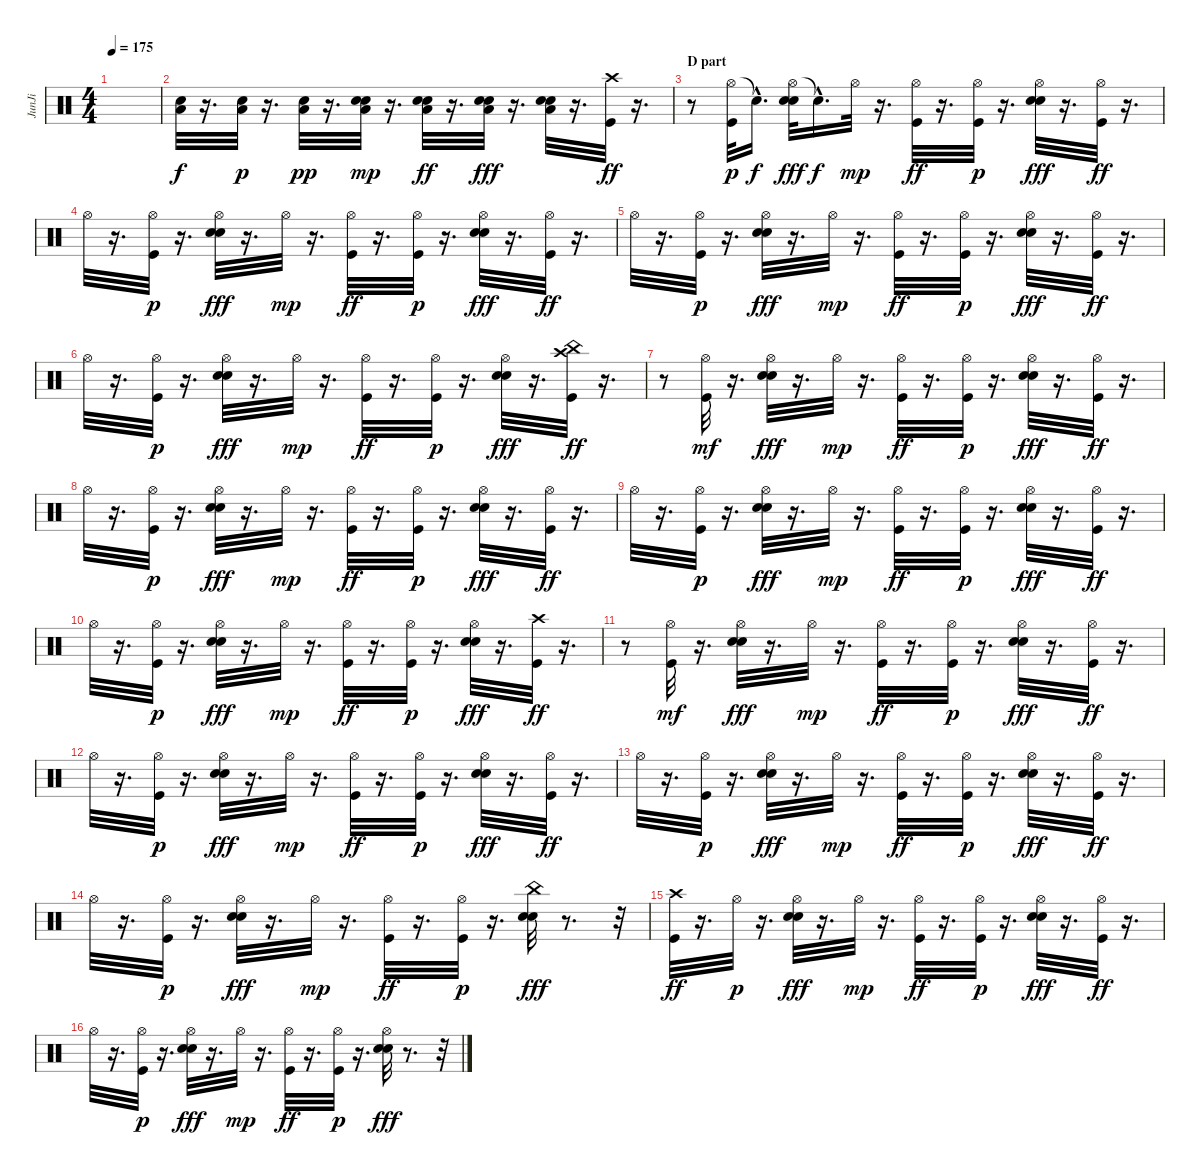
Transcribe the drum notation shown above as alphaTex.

\track ("JunJi" "JunJi") {instrument percussion}
\staff {score}
\articulation defaults
\ts (4 4)
\tempo 175
\clef neutral
\ks c
|
("Low Floor Tom (hit)" "Snare (hit) 2").32 r.16{d} ("Low Floor Tom (hit)" "Snare (hit) 2").32{dy p} r.16{d} ("Low Floor Tom (hit)" "Snare (hit) 2").32{dy pp} r.16{d} ("Electric Snare (hit)" "Low Floor Tom (hit)" "Snare (hit) 2").32{dy mp} r.16{d} ("Electric Snare (hit)" "Low Floor Tom (hit)" "Snare (hit) 2").32{dy ff} r.16{d} ("Electric Snare (hit)" "Low Floor Tom (hit)" "Snare (hit) 2").32{dy fff} r.16{d} ("Electric Snare (hit)" "Low Floor Tom (hit)" "Snare (hit) 2").32 r.16{d} ("Crash high (hit)" "Kick (hit)").32{dy ff} r.16{d} |
\section ("" "D part")
r.8 ("Hi-Hat (open)" "Kick (hit)").32{dy p} "Snare (hit)"{hac t}.16{d dy f} ("Hi-Hat (open)" "Electric Snare (hit)" "Snare (hit) 2").32{dy fff} "Snare (hit)"{hac t}.16{d dy f} "Hi-Hat (open)".32{dy mp} r.16{d} ("Hi-Hat (open)" "Kick (hit)").32{dy ff} r.16{d} ("Hi-Hat (open)" "Kick (hit)").32{dy p} r.16{d} ("Hi-Hat (open)" "Electric Snare (hit)" "Snare (hit) 2").32{dy fff} r.16{d} ("Hi-Hat (open)" "Kick (hit)").32{dy ff} r.16{d} |
"Hi-Hat (open)".32 r.16{d} ("Hi-Hat (open)" "Kick (hit)").32{dy p} r.16{d} ("Hi-Hat (open)" "Electric Snare (hit)" "Snare (hit) 2").32{dy fff} r.16{d} "Hi-Hat (open)".32{dy mp} r.16{d} ("Hi-Hat (open)" "Kick (hit)").32{dy ff} r.16{d} ("Hi-Hat (open)" "Kick (hit)").32{dy p} r.16{d} ("Hi-Hat (open)" "Electric Snare (hit)" "Snare (hit) 2").32{dy fff} r.16{d} ("Hi-Hat (open)" "Kick (hit)").32{dy ff} r.16{d} |
"Hi-Hat (open)".32 r.16{d} ("Hi-Hat (open)" "Kick (hit)").32{dy p} r.16{d} ("Hi-Hat (open)" "Electric Snare (hit)" "Snare (hit) 2").32{dy fff} r.16{d} "Hi-Hat (open)".32{dy mp} r.16{d} ("Hi-Hat (open)" "Kick (hit)").32{dy ff} r.16{d} ("Hi-Hat (open)" "Kick (hit)").32{dy p} r.16{d} ("Hi-Hat (open)" "Electric Snare (hit)" "Snare (hit) 2").32{dy fff} r.16{d} ("Hi-Hat (open)" "Kick (hit)").32{dy ff} r.16{d} |
"Hi-Hat (open)".32 r.16{d} ("Hi-Hat (open)" "Kick (hit)").32{dy p} r.16{d} ("Hi-Hat (open)" "Electric Snare (hit)" "Snare (hit) 2").32{dy fff} r.16{d} "Hi-Hat (open)".32{dy mp} r.16{d} ("Hi-Hat (open)" "Kick (hit)").32{dy ff} r.16{d} ("Hi-Hat (open)" "Kick (hit)").32{dy p} r.16{d} ("Hi-Hat (open)" "Electric Snare (hit)" "Snare (hit) 2").32{dy fff} r.16{d} ("Crash high (hit)" "Kick (hit)" "China (hit)").32{dy ff} r.16{d} |
r.8 ("Hi-Hat (open)" "Kick (hit)").32{dy mf} r.16{d} ("Hi-Hat (open)" "Electric Snare (hit)" "Snare (hit) 2").32{dy fff} r.16{d} "Hi-Hat (open)".32{dy mp} r.16{d} ("Hi-Hat (open)" "Kick (hit)").32{dy ff} r.16{d} ("Hi-Hat (open)" "Kick (hit)").32{dy p} r.16{d} ("Hi-Hat (open)" "Electric Snare (hit)" "Snare (hit) 2").32{dy fff} r.16{d} ("Hi-Hat (open)" "Kick (hit)").32{dy ff} r.16{d} |
"Hi-Hat (open)".32 r.16{d} ("Hi-Hat (open)" "Kick (hit)").32{dy p} r.16{d} ("Hi-Hat (open)" "Electric Snare (hit)" "Snare (hit) 2").32{dy fff} r.16{d} "Hi-Hat (open)".32{dy mp} r.16{d} ("Hi-Hat (open)" "Kick (hit)").32{dy ff} r.16{d} ("Hi-Hat (open)" "Kick (hit)").32{dy p} r.16{d} ("Hi-Hat (open)" "Electric Snare (hit)" "Snare (hit) 2").32{dy fff} r.16{d} ("Hi-Hat (open)" "Kick (hit)").32{dy ff} r.16{d} |
"Hi-Hat (open)".32 r.16{d} ("Hi-Hat (open)" "Kick (hit)").32{dy p} r.16{d} ("Hi-Hat (open)" "Electric Snare (hit)" "Snare (hit) 2").32{dy fff} r.16{d} "Hi-Hat (open)".32{dy mp} r.16{d} ("Hi-Hat (open)" "Kick (hit)").32{dy ff} r.16{d} ("Hi-Hat (open)" "Kick (hit)").32{dy p} r.16{d} ("Hi-Hat (open)" "Electric Snare (hit)" "Snare (hit) 2").32{dy fff} r.16{d} ("Hi-Hat (open)" "Kick (hit)").32{dy ff} r.16{d} |
"Hi-Hat (open)".32 r.16{d} ("Hi-Hat (open)" "Kick (hit)").32{dy p} r.16{d} ("Hi-Hat (open)" "Electric Snare (hit)" "Snare (hit) 2").32{dy fff} r.16{d} "Hi-Hat (open)".32{dy mp} r.16{d} ("Hi-Hat (open)" "Kick (hit)").32{dy ff} r.16{d} ("Hi-Hat (open)" "Kick (hit)").32{dy p} r.16{d} ("Hi-Hat (open)" "Electric Snare (hit)" "Snare (hit) 2").32{dy fff} r.16{d} ("Crash high (hit)" "Kick (hit)").32{dy ff} r.16{d} |
r.8 ("Hi-Hat (open)" "Kick (hit)").32{dy mf} r.16{d} ("Hi-Hat (open)" "Electric Snare (hit)" "Snare (hit) 2").32{dy fff} r.16{d} "Hi-Hat (open)".32{dy mp} r.16{d} ("Hi-Hat (open)" "Kick (hit)").32{dy ff} r.16{d} ("Hi-Hat (open)" "Kick (hit)").32{dy p} r.16{d} ("Hi-Hat (open)" "Electric Snare (hit)" "Snare (hit) 2").32{dy fff} r.16{d} ("Hi-Hat (open)" "Kick (hit)").32{dy ff} r.16{d} |
"Hi-Hat (open)".32 r.16{d} ("Hi-Hat (open)" "Kick (hit)").32{dy p} r.16{d} ("Hi-Hat (open)" "Electric Snare (hit)" "Snare (hit) 2").32{dy fff} r.16{d} "Hi-Hat (open)".32{dy mp} r.16{d} ("Hi-Hat (open)" "Kick (hit)").32{dy ff} r.16{d} ("Hi-Hat (open)" "Kick (hit)").32{dy p} r.16{d} ("Hi-Hat (open)" "Electric Snare (hit)" "Snare (hit) 2").32{dy fff} r.16{d} ("Hi-Hat (open)" "Kick (hit)").32{dy ff} r.16{d} |
"Hi-Hat (open)".32 r.16{d} ("Hi-Hat (open)" "Kick (hit)").32{dy p} r.16{d} ("Hi-Hat (open)" "Electric Snare (hit)" "Snare (hit) 2").32{dy fff} r.16{d} "Hi-Hat (open)".32{dy mp} r.16{d} ("Hi-Hat (open)" "Kick (hit)").32{dy ff} r.16{d} ("Hi-Hat (open)" "Kick (hit)").32{dy p} r.16{d} ("Hi-Hat (open)" "Electric Snare (hit)" "Snare (hit) 2").32{dy fff} r.16{d} ("Hi-Hat (open)" "Kick (hit)").32{dy ff} r.16{d} |
"Hi-Hat (open)".32 r.16{d} ("Hi-Hat (open)" "Kick (hit)").32{dy p} r.16{d} ("Hi-Hat (open)" "Electric Snare (hit)" "Snare (hit) 2").32{dy fff} r.16{d} "Hi-Hat (open)".32{dy mp} r.16{d} ("Hi-Hat (open)" "Kick (hit)").32{dy ff} r.16{d} ("Hi-Hat (open)" "Kick (hit)").32{dy p} r.16{d} ("China (hit)" "Electric Snare (hit)" "Snare (hit) 2").32{dy fff} r.8{d} r.32 |
("Crash high (hit)" "Kick (hit)").32{dy ff} r.16{d} "Hi-Hat (open)".32{dy p} r.16{d} ("Hi-Hat (open)" "Electric Snare (hit)" "Snare (hit) 2").32{dy fff} r.16{d} "Hi-Hat (open)".32{dy mp} r.16{d} ("Hi-Hat (open)" "Kick (hit)").32{dy ff} r.16{d} ("Hi-Hat (open)" "Kick (hit)").32{dy p} r.16{d} ("Hi-Hat (open)" "Electric Snare (hit)" "Snare (hit) 2").32{dy fff} r.16{d} ("Hi-Hat (open)" "Kick (hit)").32{dy ff} r.16{d} |
"Hi-Hat (open)".32 r.16{d} ("Hi-Hat (open)" "Kick (hit)").32{dy p} r.16{d} ("Hi-Hat (open)" "Electric Snare (hit)" "Snare (hit) 2").32{dy fff} r.16{d} "Hi-Hat (open)".32{dy mp} r.16{d} ("Hi-Hat (open)" "Kick (hit)").32{dy ff} r.16{d} ("Hi-Hat (open)" "Kick (hit)").32{dy p} r.16{d} ("Hi-Hat (open)" "Electric Snare (hit)" "Snare (hit) 2").32{dy fff} r.8{d} r.32
